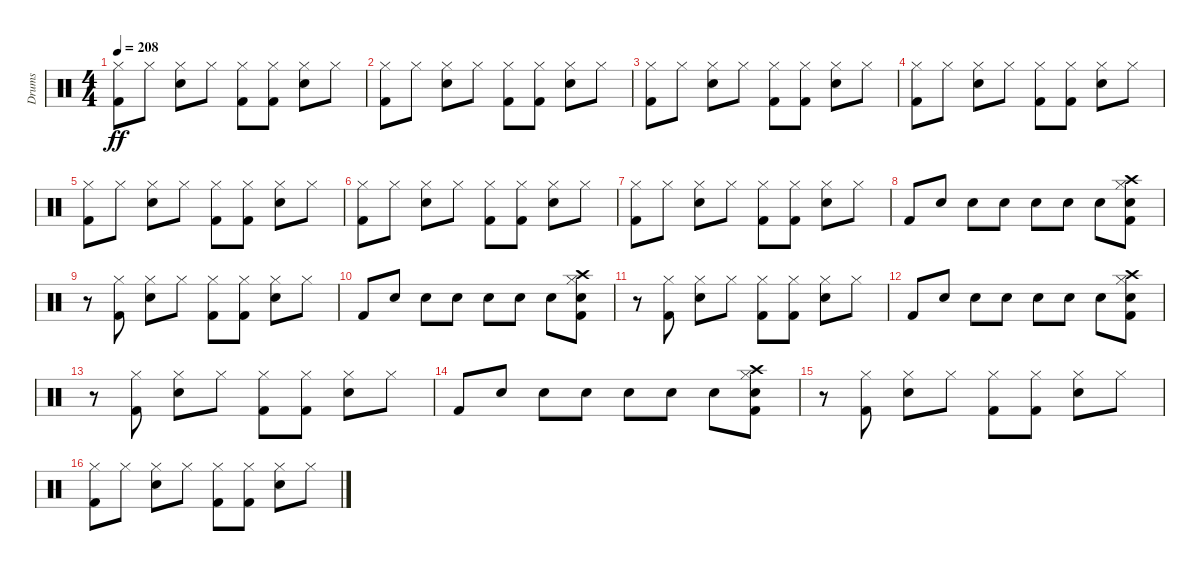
\track ("Drums" "Drums") {instrument percussion}
\staff {score}
\articulation defaults
\ts (4 4)
\tempo 208
\clef neutral
\ks c
("Kick (hit) 2" "Hi-Hat (closed)").8{dy ff} "Hi-Hat (closed)".8 ("Snare (hit) 2" "Hi-Hat (closed)").8 "Hi-Hat (closed)".8 ("Kick (hit) 2" "Hi-Hat (closed)").8 ("Kick (hit) 2" "Hi-Hat (closed)").8 ("Snare (hit) 2" "Hi-Hat (closed)").8 "Hi-Hat (closed)".8 |
("Kick (hit) 2" "Hi-Hat (closed)").8 "Hi-Hat (closed)".8 ("Snare (hit) 2" "Hi-Hat (closed)").8 "Hi-Hat (closed)".8 ("Kick (hit) 2" "Hi-Hat (closed)").8 ("Kick (hit) 2" "Hi-Hat (closed)").8 ("Snare (hit) 2" "Hi-Hat (closed)").8 "Hi-Hat (closed)".8 |
("Kick (hit) 2" "Hi-Hat (closed)").8 "Hi-Hat (closed)".8 ("Snare (hit) 2" "Hi-Hat (closed)").8 "Hi-Hat (closed)".8 ("Kick (hit) 2" "Hi-Hat (closed)").8 ("Kick (hit) 2" "Hi-Hat (closed)").8 ("Snare (hit) 2" "Hi-Hat (closed)").8 "Hi-Hat (closed)".8 |
("Kick (hit) 2" "Hi-Hat (closed)").8 "Hi-Hat (closed)".8 ("Snare (hit) 2" "Hi-Hat (closed)").8 "Hi-Hat (closed)".8 ("Kick (hit) 2" "Hi-Hat (closed)").8 ("Kick (hit) 2" "Hi-Hat (closed)").8 ("Snare (hit) 2" "Hi-Hat (closed)").8 "Hi-Hat (closed)".8 |
("Kick (hit) 2" "Hi-Hat (closed)").8 "Hi-Hat (closed)".8 ("Snare (hit) 2" "Hi-Hat (closed)").8 "Hi-Hat (closed)".8 ("Kick (hit) 2" "Hi-Hat (closed)").8 ("Kick (hit) 2" "Hi-Hat (closed)").8 ("Snare (hit) 2" "Hi-Hat (closed)").8 "Hi-Hat (closed)".8 |
("Kick (hit) 2" "Hi-Hat (closed)").8 "Hi-Hat (closed)".8 ("Snare (hit) 2" "Hi-Hat (closed)").8 "Hi-Hat (closed)".8 ("Kick (hit) 2" "Hi-Hat (closed)").8 ("Kick (hit) 2" "Hi-Hat (closed)").8 ("Snare (hit) 2" "Hi-Hat (closed)").8 "Hi-Hat (closed)".8 |
("Kick (hit) 2" "Hi-Hat (closed)").8 "Hi-Hat (closed)".8 ("Snare (hit) 2" "Hi-Hat (closed)").8 "Hi-Hat (closed)".8 ("Kick (hit) 2" "Hi-Hat (closed)").8 ("Kick (hit) 2" "Hi-Hat (closed)").8 ("Snare (hit) 2" "Hi-Hat (closed)").8 "Hi-Hat (closed)".8 |
"Kick (hit) 2".8 "Snare (hit) 2".8 "Snare (hit) 2".8 "Snare (hit) 2".8 "Snare (hit) 2".8 "Snare (hit) 2".8 "Snare (hit) 2".8 ("Kick (hit) 2" "Snare (hit) 2" "Hi-Hat (closed)" "Crash high (hit)").8 |
r.8 ("Kick (hit) 2" "Hi-Hat (closed)").8 ("Snare (hit) 2" "Hi-Hat (closed)").8 "Hi-Hat (closed)".8 ("Kick (hit) 2" "Hi-Hat (closed)").8 ("Kick (hit) 2" "Hi-Hat (closed)").8 ("Snare (hit) 2" "Hi-Hat (closed)").8 "Hi-Hat (closed)".8 |
"Kick (hit) 2".8 "Snare (hit) 2".8 "Snare (hit) 2".8 "Snare (hit) 2".8 "Snare (hit) 2".8 "Snare (hit) 2".8 "Snare (hit) 2".8 ("Kick (hit) 2" "Snare (hit) 2" "Hi-Hat (closed)" "Crash high (hit)").8 |
r.8 ("Kick (hit) 2" "Hi-Hat (closed)").8 ("Snare (hit) 2" "Hi-Hat (closed)").8 "Hi-Hat (closed)".8 ("Kick (hit) 2" "Hi-Hat (closed)").8 ("Kick (hit) 2" "Hi-Hat (closed)").8 ("Snare (hit) 2" "Hi-Hat (closed)").8 "Hi-Hat (closed)".8 |
"Kick (hit) 2".8 "Snare (hit) 2".8 "Snare (hit) 2".8 "Snare (hit) 2".8 "Snare (hit) 2".8 "Snare (hit) 2".8 "Snare (hit) 2".8 ("Kick (hit) 2" "Snare (hit) 2" "Hi-Hat (closed)" "Crash high (hit)").8 |
r.8 ("Kick (hit) 2" "Hi-Hat (closed)").8 ("Snare (hit) 2" "Hi-Hat (closed)").8 "Hi-Hat (closed)".8 ("Kick (hit) 2" "Hi-Hat (closed)").8 ("Kick (hit) 2" "Hi-Hat (closed)").8 ("Snare (hit) 2" "Hi-Hat (closed)").8 "Hi-Hat (closed)".8 |
"Kick (hit) 2".8 "Snare (hit) 2".8 "Snare (hit) 2".8 "Snare (hit) 2".8 "Snare (hit) 2".8 "Snare (hit) 2".8 "Snare (hit) 2".8 ("Kick (hit) 2" "Snare (hit) 2" "Hi-Hat (closed)" "Crash high (hit)").8 |
r.8 ("Kick (hit) 2" "Hi-Hat (closed)").8 ("Snare (hit) 2" "Hi-Hat (closed)").8 "Hi-Hat (closed)".8 ("Kick (hit) 2" "Hi-Hat (closed)").8 ("Kick (hit) 2" "Hi-Hat (closed)").8 ("Snare (hit) 2" "Hi-Hat (closed)").8 "Hi-Hat (closed)".8 |
("Kick (hit) 2" "Hi-Hat (closed)").8 "Hi-Hat (closed)".8 ("Snare (hit) 2" "Hi-Hat (closed)").8 "Hi-Hat (closed)".8 ("Kick (hit) 2" "Hi-Hat (closed)").8 ("Kick (hit) 2" "Hi-Hat (closed)").8 ("Snare (hit) 2" "Hi-Hat (closed)").8 "Hi-Hat (closed)".8
